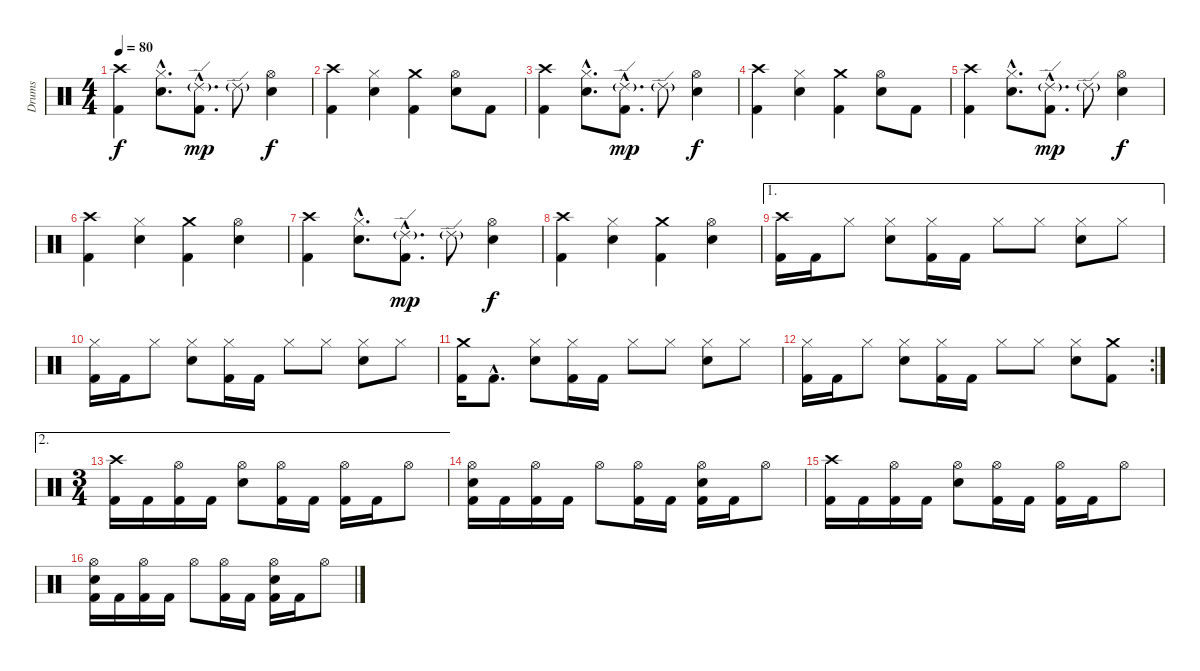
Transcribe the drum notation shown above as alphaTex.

\track ("Drums" "Drums") {instrument percussion}
\staff {score}
\articulation defaults
\ts (4 4)
\tempo 80
\clef neutral
\ks c
("Crash high (hit)" "Kick (hit) 2").4{dy f} ("Hi-Hat (closed)"{hac} "Snare (hit) 2"{hac}).8{d} ("Ride (edge) 2"{g hac} "Kick (hit) 2"{hac}).8{d dy mp} "Ride (edge) 2"{g}.8 ("Hi-Hat (open)" "Snare (hit) 2").4{dy f} |
("Crash high (hit)" "Kick (hit) 2").4 ("Hi-Hat (closed)" "Snare (hit) 2").4 ("Crash medium (hit)" "Kick (hit) 2").4 ("Hi-Hat (open)" "Snare (hit) 2").8 "Kick (hit) 2".8 |
("Crash high (hit)" "Kick (hit) 2").4 ("Hi-Hat (closed)"{hac} "Snare (hit) 2"{hac}).8{d} ("Ride (edge) 2"{g hac} "Kick (hit) 2"{hac}).8{d dy mp} "Ride (edge) 2"{g}.8 ("Hi-Hat (open)" "Snare (hit) 2").4{dy f} |
("Crash high (hit)" "Kick (hit) 2").4 ("Hi-Hat (closed)" "Snare (hit) 2").4 ("Crash medium (hit)" "Kick (hit) 2").4 ("Hi-Hat (open)" "Snare (hit) 2").8 "Kick (hit) 2".8 |
("Crash high (hit)" "Kick (hit) 2").4 ("Hi-Hat (closed)"{hac} "Snare (hit) 2"{hac}).8{d} ("Ride (edge) 2"{g hac} "Kick (hit) 2"{hac}).8{d dy mp} "Ride (edge) 2"{g}.8 ("Hi-Hat (open)" "Snare (hit) 2").4{dy f} |
("Crash high (hit)" "Kick (hit) 2").4 ("Hi-Hat (closed)" "Snare (hit) 2").4 ("Crash medium (hit)" "Kick (hit) 2").4 ("Hi-Hat (open)" "Snare (hit) 2").4 |
("Crash high (hit)" "Kick (hit) 2").4 ("Hi-Hat (closed)"{hac} "Snare (hit) 2"{hac}).8{d} ("Ride (edge) 2"{g hac} "Kick (hit) 2"{hac}).8{d dy mp} "Ride (edge) 2"{g}.8 ("Hi-Hat (open)" "Snare (hit) 2").4{dy f} |
("Crash high (hit)" "Kick (hit) 2").4 ("Hi-Hat (closed)" "Snare (hit) 2").4 ("Crash medium (hit)" "Kick (hit) 2").4 ("Hi-Hat (open)" "Snare (hit) 2").4 |
\ae 1
("Crash high (hit)" "Kick (hit) 2").16 "Kick (hit) 2".16 "Hi-Hat (closed)".8 ("Hi-Hat (closed)" "Snare (hit) 2").8 ("Hi-Hat (closed)" "Kick (hit) 2").16 "Kick (hit) 2".16 "Hi-Hat (closed)".8 "Hi-Hat (closed)".8 ("Hi-Hat (closed)" "Snare (hit) 2").8 "Hi-Hat (closed)".8 |
("Hi-Hat (closed)" "Kick (hit) 2").16 "Kick (hit) 2".16 "Hi-Hat (closed)".8 ("Hi-Hat (closed)" "Snare (hit) 2").8 ("Hi-Hat (closed)" "Kick (hit) 2").16 "Kick (hit) 2".16 "Hi-Hat (closed)".8 "Hi-Hat (closed)".8 ("Hi-Hat (closed)" "Snare (hit) 2").8 "Hi-Hat (closed)".8 |
("Crash medium (hit)" "Kick (hit) 2").16 "Kick (hit) 2"{hac}.8{d} ("Hi-Hat (closed)" "Snare (hit) 2").8 ("Hi-Hat (closed)" "Kick (hit) 2").16 "Kick (hit) 2".16 "Hi-Hat (closed)".8 "Hi-Hat (closed)".8 ("Hi-Hat (closed)" "Snare (hit) 2").8 "Hi-Hat (closed)".8 |
\rc 2
("Hi-Hat (closed)" "Kick (hit) 2").16 "Kick (hit) 2".16 "Hi-Hat (closed)".8 ("Hi-Hat (closed)" "Snare (hit) 2").8 ("Hi-Hat (closed)" "Kick (hit) 2").16 "Kick (hit) 2".16 "Hi-Hat (closed)".8 "Hi-Hat (closed)".8 ("Hi-Hat (closed)" "Snare (hit) 2").8 ("Crash medium (hit)" "Kick (hit) 2").8 |
\ae 2
\ts (3 4)
("Crash high (hit)" "Kick (hit) 2").16 "Kick (hit) 2".16 ("Hi-Hat (open)" "Kick (hit) 2").16 "Kick (hit) 2".16 ("Hi-Hat (open)" "Snare (hit) 2").8 ("Hi-Hat (open)" "Kick (hit) 2").16 "Kick (hit) 2".16 ("Hi-Hat (open)" "Kick (hit) 2").16 "Kick (hit) 2".16 "Hi-Hat (open)".8 |
("Hi-Hat (open)" "Snare (hit) 2" "Kick (hit) 2").16 "Kick (hit) 2".16 ("Hi-Hat (open)" "Kick (hit) 2").16 "Kick (hit) 2".16 "Hi-Hat (open)".8 ("Hi-Hat (open)" "Kick (hit) 2").16 "Kick (hit) 2".16 ("Hi-Hat (open)" "Snare (hit) 2" "Kick (hit) 2").16 "Kick (hit) 2".16 "Hi-Hat (open)".8 |
("Crash high (hit)" "Kick (hit) 2").16 "Kick (hit) 2".16 ("Hi-Hat (open)" "Kick (hit) 2").16 "Kick (hit) 2".16 ("Hi-Hat (open)" "Snare (hit) 2").8 ("Hi-Hat (open)" "Kick (hit) 2").16 "Kick (hit) 2".16 ("Hi-Hat (open)" "Kick (hit) 2").16 "Kick (hit) 2".16 "Hi-Hat (open)".8 |
("Hi-Hat (open)" "Snare (hit) 2" "Kick (hit) 2").16 "Kick (hit) 2".16 ("Hi-Hat (open)" "Kick (hit) 2").16 "Kick (hit) 2".16 "Hi-Hat (open)".8 ("Hi-Hat (open)" "Kick (hit) 2").16 "Kick (hit) 2".16 ("Hi-Hat (open)" "Snare (hit) 2" "Kick (hit) 2").16 "Kick (hit) 2".16 "Hi-Hat (open)".8
